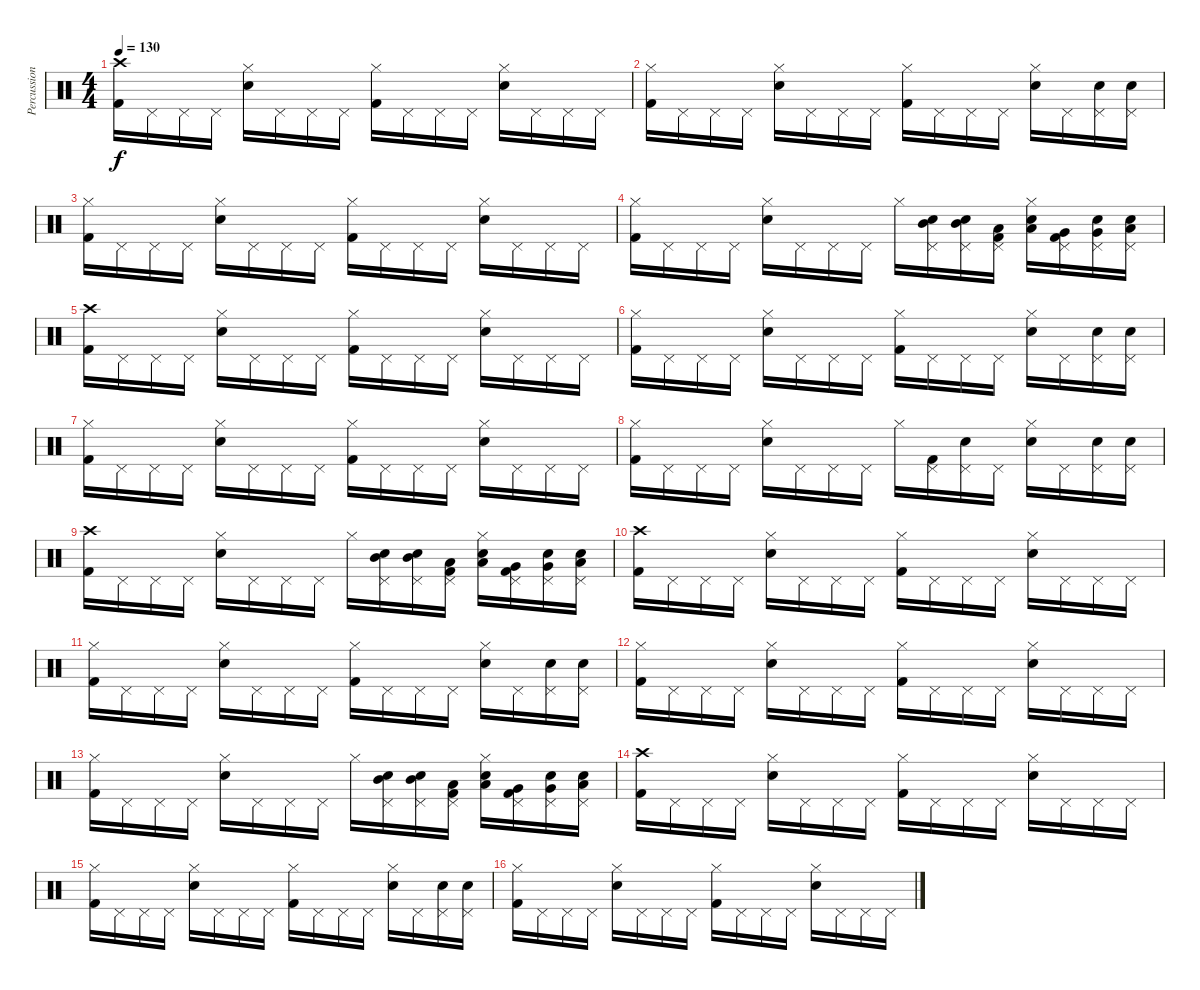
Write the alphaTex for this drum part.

\track ("Percussion" "Percussion") {instrument percussion}
\staff {score}
\articulation defaults
\ts (4 4)
\tempo 130
\clef neutral
\ks c
("Crash high (hit)" "Kick (hit) 2").16{dy f} "Pedal Hi-Hat (hit)".16 "Pedal Hi-Hat (hit)".16 "Pedal Hi-Hat (hit)".16 ("Hi-Hat (closed)" "Snare (hit) 2").16 "Pedal Hi-Hat (hit)".16 "Pedal Hi-Hat (hit)".16 "Pedal Hi-Hat (hit)".16 ("Hi-Hat (closed)" "Kick (hit) 2").16 "Pedal Hi-Hat (hit)".16 "Pedal Hi-Hat (hit)".16 "Pedal Hi-Hat (hit)".16 ("Hi-Hat (closed)" "Snare (hit) 2").16 "Pedal Hi-Hat (hit)".16 "Pedal Hi-Hat (hit)".16 "Pedal Hi-Hat (hit)".16 |
("Hi-Hat (closed)" "Kick (hit) 2").16 "Pedal Hi-Hat (hit)".16 "Pedal Hi-Hat (hit)".16 "Pedal Hi-Hat (hit)".16 ("Hi-Hat (closed)" "Snare (hit) 2").16 "Pedal Hi-Hat (hit)".16 "Pedal Hi-Hat (hit)".16 "Pedal Hi-Hat (hit)".16 ("Hi-Hat (closed)" "Kick (hit) 2").16 "Pedal Hi-Hat (hit)".16 "Pedal Hi-Hat (hit)".16 "Pedal Hi-Hat (hit)".16 ("Hi-Hat (closed)" "Snare (hit) 2").16 "Pedal Hi-Hat (hit)".16 ("Pedal Hi-Hat (hit)" "Snare (hit) 2").16 ("Pedal Hi-Hat (hit)" "Snare (hit) 2").16 |
("Hi-Hat (closed)" "Kick (hit) 2").16 "Pedal Hi-Hat (hit)".16 "Pedal Hi-Hat (hit)".16 "Pedal Hi-Hat (hit)".16 ("Hi-Hat (closed)" "Snare (hit) 2").16 "Pedal Hi-Hat (hit)".16 "Pedal Hi-Hat (hit)".16 "Pedal Hi-Hat (hit)".16 ("Hi-Hat (closed)" "Kick (hit) 2").16 "Pedal Hi-Hat (hit)".16 "Pedal Hi-Hat (hit)".16 "Pedal Hi-Hat (hit)".16 ("Hi-Hat (closed)" "Snare (hit) 2").16 "Pedal Hi-Hat (hit)".16 "Pedal Hi-Hat (hit)".16 "Pedal Hi-Hat (hit)".16 |
("Hi-Hat (closed)" "Kick (hit) 2").16 "Pedal Hi-Hat (hit)".16 "Pedal Hi-Hat (hit)".16 "Pedal Hi-Hat (hit)".16 ("Hi-Hat (closed)" "Snare (hit) 2").16 "Pedal Hi-Hat (hit)".16 "Pedal Hi-Hat (hit)".16 "Pedal Hi-Hat (hit)".16 "Hi-Hat (closed)".16 ("Pedal Hi-Hat (hit)" "Mid Tom (hit)" "Snare (hit) 2").16 ("Pedal Hi-Hat (hit)" "Mid Tom (hit)" "Snare (hit) 2").16 ("Pedal Hi-Hat (hit)" "Low Tom (hit)" "Kick (hit) 2").16 ("Hi-Hat (closed)" "Low Tom (hit)" "Snare (hit) 2").16 ("Pedal Hi-Hat (hit)" "Very Low Tom (hit)" "Kick (hit) 2").16 ("Pedal Hi-Hat (hit)" "Very Low Tom (hit)" "Snare (hit) 2").16 ("Pedal Hi-Hat (hit)" "Low Floor Tom (hit)" "Snare (hit) 2").16 |
("Crash high (hit)" "Kick (hit) 2").16 "Pedal Hi-Hat (hit)".16 "Pedal Hi-Hat (hit)".16 "Pedal Hi-Hat (hit)".16 ("Hi-Hat (closed)" "Snare (hit) 2").16 "Pedal Hi-Hat (hit)".16 "Pedal Hi-Hat (hit)".16 "Pedal Hi-Hat (hit)".16 ("Hi-Hat (closed)" "Kick (hit) 2").16 "Pedal Hi-Hat (hit)".16 "Pedal Hi-Hat (hit)".16 "Pedal Hi-Hat (hit)".16 ("Hi-Hat (closed)" "Snare (hit) 2").16 "Pedal Hi-Hat (hit)".16 "Pedal Hi-Hat (hit)".16 "Pedal Hi-Hat (hit)".16 |
("Hi-Hat (closed)" "Kick (hit) 2").16 "Pedal Hi-Hat (hit)".16 "Pedal Hi-Hat (hit)".16 "Pedal Hi-Hat (hit)".16 ("Hi-Hat (closed)" "Snare (hit) 2").16 "Pedal Hi-Hat (hit)".16 "Pedal Hi-Hat (hit)".16 "Pedal Hi-Hat (hit)".16 ("Hi-Hat (closed)" "Kick (hit) 2").16 "Pedal Hi-Hat (hit)".16 "Pedal Hi-Hat (hit)".16 "Pedal Hi-Hat (hit)".16 ("Hi-Hat (closed)" "Snare (hit) 2").16 "Pedal Hi-Hat (hit)".16 ("Pedal Hi-Hat (hit)" "Snare (hit) 2").16 ("Pedal Hi-Hat (hit)" "Snare (hit) 2").16 |
("Hi-Hat (closed)" "Kick (hit) 2").16 "Pedal Hi-Hat (hit)".16 "Pedal Hi-Hat (hit)".16 "Pedal Hi-Hat (hit)".16 ("Hi-Hat (closed)" "Snare (hit) 2").16 "Pedal Hi-Hat (hit)".16 "Pedal Hi-Hat (hit)".16 "Pedal Hi-Hat (hit)".16 ("Hi-Hat (closed)" "Kick (hit) 2").16 "Pedal Hi-Hat (hit)".16 "Pedal Hi-Hat (hit)".16 "Pedal Hi-Hat (hit)".16 ("Hi-Hat (closed)" "Snare (hit) 2").16 "Pedal Hi-Hat (hit)".16 "Pedal Hi-Hat (hit)".16 "Pedal Hi-Hat (hit)".16 |
("Hi-Hat (closed)" "Kick (hit) 2").16 "Pedal Hi-Hat (hit)".16 "Pedal Hi-Hat (hit)".16 "Pedal Hi-Hat (hit)".16 ("Hi-Hat (closed)" "Snare (hit) 2").16 "Pedal Hi-Hat (hit)".16 "Pedal Hi-Hat (hit)".16 "Pedal Hi-Hat (hit)".16 "Hi-Hat (closed)".16 ("Pedal Hi-Hat (hit)" "Kick (hit) 2").16 ("Pedal Hi-Hat (hit)" "Snare (hit) 2").16 "Pedal Hi-Hat (hit)".16 ("Hi-Hat (closed)" "Snare (hit) 2").16 "Pedal Hi-Hat (hit)".16 ("Pedal Hi-Hat (hit)" "Snare (hit) 2").16 ("Pedal Hi-Hat (hit)" "Snare (hit) 2").16 |
("Crash high (hit)" "Kick (hit) 2").16 "Pedal Hi-Hat (hit)".16 "Pedal Hi-Hat (hit)".16 "Pedal Hi-Hat (hit)".16 ("Hi-Hat (closed)" "Snare (hit) 2").16 "Pedal Hi-Hat (hit)".16 "Pedal Hi-Hat (hit)".16 "Pedal Hi-Hat (hit)".16 "Hi-Hat (closed)".16 ("Pedal Hi-Hat (hit)" "Mid Tom (hit)" "Snare (hit) 2").16 ("Pedal Hi-Hat (hit)" "Mid Tom (hit)" "Snare (hit) 2").16 ("Pedal Hi-Hat (hit)" "Low Tom (hit)" "Kick (hit) 2").16 ("Hi-Hat (closed)" "Low Tom (hit)" "Snare (hit) 2").16 ("Pedal Hi-Hat (hit)" "Very Low Tom (hit)" "Kick (hit) 2").16 ("Pedal Hi-Hat (hit)" "Very Low Tom (hit)" "Snare (hit) 2").16 ("Pedal Hi-Hat (hit)" "Low Floor Tom (hit)" "Snare (hit) 2").16 |
("Crash high (hit)" "Kick (hit) 2").16 "Pedal Hi-Hat (hit)".16 "Pedal Hi-Hat (hit)".16 "Pedal Hi-Hat (hit)".16 ("Hi-Hat (closed)" "Snare (hit) 2").16 "Pedal Hi-Hat (hit)".16 "Pedal Hi-Hat (hit)".16 "Pedal Hi-Hat (hit)".16 ("Hi-Hat (closed)" "Kick (hit) 2").16 "Pedal Hi-Hat (hit)".16 "Pedal Hi-Hat (hit)".16 "Pedal Hi-Hat (hit)".16 ("Hi-Hat (closed)" "Snare (hit) 2").16 "Pedal Hi-Hat (hit)".16 "Pedal Hi-Hat (hit)".16 "Pedal Hi-Hat (hit)".16 |
("Hi-Hat (closed)" "Kick (hit) 2").16 "Pedal Hi-Hat (hit)".16 "Pedal Hi-Hat (hit)".16 "Pedal Hi-Hat (hit)".16 ("Hi-Hat (closed)" "Snare (hit) 2").16 "Pedal Hi-Hat (hit)".16 "Pedal Hi-Hat (hit)".16 "Pedal Hi-Hat (hit)".16 ("Hi-Hat (closed)" "Kick (hit) 2").16 "Pedal Hi-Hat (hit)".16 "Pedal Hi-Hat (hit)".16 "Pedal Hi-Hat (hit)".16 ("Hi-Hat (closed)" "Snare (hit) 2").16 "Pedal Hi-Hat (hit)".16 ("Pedal Hi-Hat (hit)" "Snare (hit) 2").16 ("Pedal Hi-Hat (hit)" "Snare (hit) 2").16 |
("Hi-Hat (closed)" "Kick (hit) 2").16 "Pedal Hi-Hat (hit)".16 "Pedal Hi-Hat (hit)".16 "Pedal Hi-Hat (hit)".16 ("Hi-Hat (closed)" "Snare (hit) 2").16 "Pedal Hi-Hat (hit)".16 "Pedal Hi-Hat (hit)".16 "Pedal Hi-Hat (hit)".16 ("Hi-Hat (closed)" "Kick (hit) 2").16 "Pedal Hi-Hat (hit)".16 "Pedal Hi-Hat (hit)".16 "Pedal Hi-Hat (hit)".16 ("Hi-Hat (closed)" "Snare (hit) 2").16 "Pedal Hi-Hat (hit)".16 "Pedal Hi-Hat (hit)".16 "Pedal Hi-Hat (hit)".16 |
("Hi-Hat (closed)" "Kick (hit) 2").16 "Pedal Hi-Hat (hit)".16 "Pedal Hi-Hat (hit)".16 "Pedal Hi-Hat (hit)".16 ("Hi-Hat (closed)" "Snare (hit) 2").16 "Pedal Hi-Hat (hit)".16 "Pedal Hi-Hat (hit)".16 "Pedal Hi-Hat (hit)".16 "Hi-Hat (closed)".16 ("Pedal Hi-Hat (hit)" "Mid Tom (hit)" "Snare (hit) 2").16 ("Pedal Hi-Hat (hit)" "Mid Tom (hit)" "Snare (hit) 2").16 ("Pedal Hi-Hat (hit)" "Low Tom (hit)" "Kick (hit) 2").16 ("Hi-Hat (closed)" "Low Tom (hit)" "Snare (hit) 2").16 ("Pedal Hi-Hat (hit)" "Very Low Tom (hit)" "Kick (hit) 2").16 ("Pedal Hi-Hat (hit)" "Very Low Tom (hit)" "Snare (hit) 2").16 ("Pedal Hi-Hat (hit)" "Low Floor Tom (hit)" "Snare (hit) 2").16 |
("Crash high (hit)" "Kick (hit) 2").16 "Pedal Hi-Hat (hit)".16 "Pedal Hi-Hat (hit)".16 "Pedal Hi-Hat (hit)".16 ("Hi-Hat (closed)" "Snare (hit) 2").16 "Pedal Hi-Hat (hit)".16 "Pedal Hi-Hat (hit)".16 "Pedal Hi-Hat (hit)".16 ("Hi-Hat (closed)" "Kick (hit) 2").16 "Pedal Hi-Hat (hit)".16 "Pedal Hi-Hat (hit)".16 "Pedal Hi-Hat (hit)".16 ("Hi-Hat (closed)" "Snare (hit) 2").16 "Pedal Hi-Hat (hit)".16 "Pedal Hi-Hat (hit)".16 "Pedal Hi-Hat (hit)".16 |
("Hi-Hat (closed)" "Kick (hit) 2").16 "Pedal Hi-Hat (hit)".16 "Pedal Hi-Hat (hit)".16 "Pedal Hi-Hat (hit)".16 ("Hi-Hat (closed)" "Snare (hit) 2").16 "Pedal Hi-Hat (hit)".16 "Pedal Hi-Hat (hit)".16 "Pedal Hi-Hat (hit)".16 ("Hi-Hat (closed)" "Kick (hit) 2").16 "Pedal Hi-Hat (hit)".16 "Pedal Hi-Hat (hit)".16 "Pedal Hi-Hat (hit)".16 ("Hi-Hat (closed)" "Snare (hit) 2").16 "Pedal Hi-Hat (hit)".16 ("Pedal Hi-Hat (hit)" "Snare (hit) 2").16 ("Pedal Hi-Hat (hit)" "Snare (hit) 2").16 |
("Hi-Hat (closed)" "Kick (hit) 2").16 "Pedal Hi-Hat (hit)".16 "Pedal Hi-Hat (hit)".16 "Pedal Hi-Hat (hit)".16 ("Hi-Hat (closed)" "Snare (hit) 2").16 "Pedal Hi-Hat (hit)".16 "Pedal Hi-Hat (hit)".16 "Pedal Hi-Hat (hit)".16 ("Hi-Hat (closed)" "Kick (hit) 2").16 "Pedal Hi-Hat (hit)".16 "Pedal Hi-Hat (hit)".16 "Pedal Hi-Hat (hit)".16 ("Hi-Hat (closed)" "Snare (hit) 2").16 "Pedal Hi-Hat (hit)".16 "Pedal Hi-Hat (hit)".16 "Pedal Hi-Hat (hit)".16
